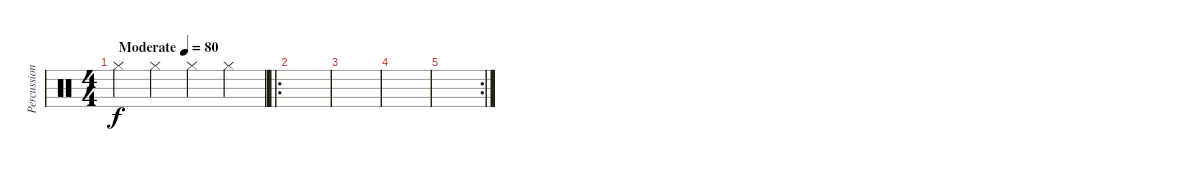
\track ("Percussion" "Percussion") {instrument percussion}
\staff {score}
\articulation defaults
\ts (4 4)
\tempo (80 "Moderate")
\clef neutral
\ks c "Hi-Hat (closed)".4{dy f} "Hi-Hat (closed)".4 "Hi-Hat (closed)".4 "Hi-Hat (closed)".4
|
\ro
|
|
|
\rc 2
